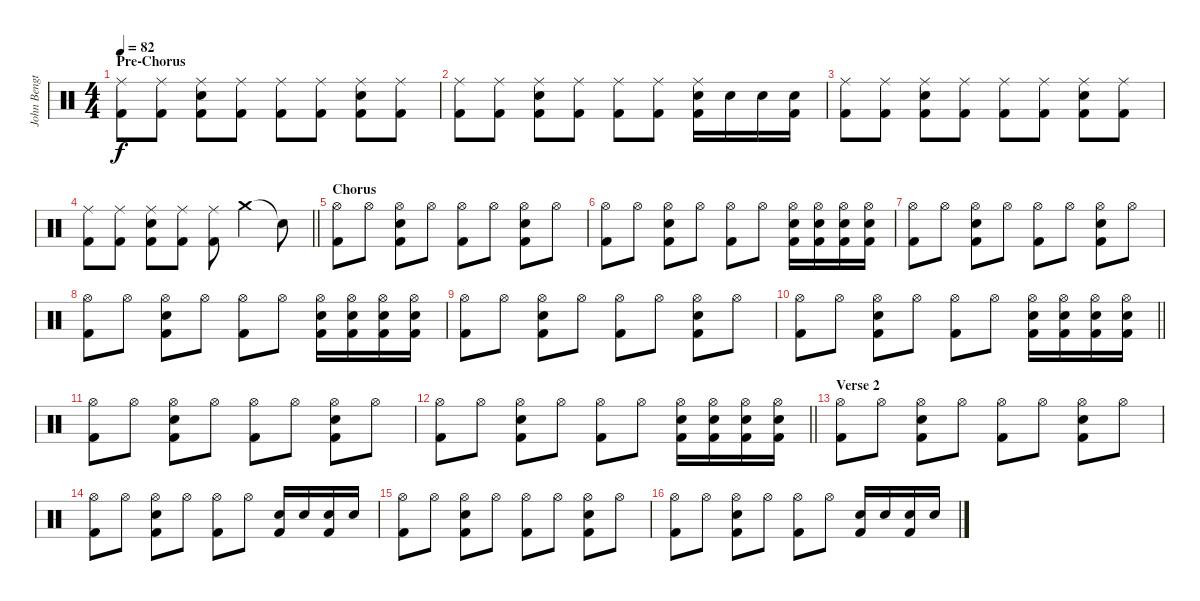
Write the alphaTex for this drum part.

\track ("John Bengtsson" "John Bengt") {instrument percussion}
\staff {score}
\articulation defaults
\ts (4 4)
\section ("" "Pre-Chorus")
\tempo 82
\clef neutral
\ks c
("Ride (middle)" "Kick (hit) 2").8{dy f} ("Ride (middle)" "Kick (hit) 2").8 ("Ride (middle)" "Electric Snare (hit)" "Kick (hit) 2").8 ("Ride (middle)" "Kick (hit) 2").8 ("Ride (middle)" "Kick (hit) 2").8 ("Ride (middle)" "Kick (hit) 2").8 ("Ride (middle)" "Electric Snare (hit)" "Kick (hit) 2").8 ("Ride (middle)" "Kick (hit) 2").8 |
("Ride (middle)" "Kick (hit) 2").8 ("Ride (middle)" "Kick (hit) 2").8 ("Ride (middle)" "Electric Snare (hit)" "Kick (hit) 2").8 ("Ride (middle)" "Kick (hit) 2").8 ("Ride (middle)" "Kick (hit) 2").8 ("Ride (middle)" "Kick (hit) 2").8 ("Ride (middle)" "Electric Snare (hit)" "Kick (hit) 2").16 "Electric Snare (hit)".16 "Electric Snare (hit)".16 ("Electric Snare (hit)" "Kick (hit) 2").16 |
("Ride (middle)" "Kick (hit) 2").8 ("Ride (middle)" "Kick (hit) 2").8 ("Ride (middle)" "Electric Snare (hit)" "Kick (hit) 2").8 ("Ride (middle)" "Kick (hit) 2").8 ("Ride (middle)" "Kick (hit) 2").8 ("Ride (middle)" "Kick (hit) 2").8 ("Ride (middle)" "Electric Snare (hit)" "Kick (hit) 2").8 ("Ride (middle)" "Kick (hit) 2").8 |
\barLineRight lightlight
("Ride (middle)" "Kick (hit) 2").8 ("Ride (middle)" "Kick (hit) 2").8 ("Ride (middle)" "Electric Snare (hit)" "Kick (hit) 2").8 ("Ride (middle)" "Kick (hit) 2").8 ("Ride (middle)" "Kick (hit) 2").8 "Crash medium (hit)".4 "Snare (hit)"{t}.8 |
\section ("" "Chorus")
("Hi-Hat (open)" "Kick (hit) 2").8 "Hi-Hat (open)".8 ("Hi-Hat (open)" "Electric Snare (hit)" "Kick (hit) 2").8 "Hi-Hat (open)".8 ("Hi-Hat (open)" "Kick (hit) 2").8 "Hi-Hat (open)".8 ("Hi-Hat (open)" "Electric Snare (hit)" "Kick (hit) 2").8 "Hi-Hat (open)".8 |
("Hi-Hat (open)" "Kick (hit) 2").8 "Hi-Hat (open)".8 ("Hi-Hat (open)" "Electric Snare (hit)" "Kick (hit) 2").8 "Hi-Hat (open)".8 ("Hi-Hat (open)" "Kick (hit) 2").8 "Hi-Hat (open)".8 ("Hi-Hat (open)" "Electric Snare (hit)" "Kick (hit) 2").16 ("Hi-Hat (open)" "Electric Snare (hit)" "Kick (hit) 2").16 ("Hi-Hat (open)" "Electric Snare (hit)" "Kick (hit) 2").16 ("Hi-Hat (open)" "Electric Snare (hit)" "Kick (hit) 2").16 |
("Hi-Hat (open)" "Kick (hit) 2").8 "Hi-Hat (open)".8 ("Hi-Hat (open)" "Electric Snare (hit)" "Kick (hit) 2").8 "Hi-Hat (open)".8 ("Hi-Hat (open)" "Kick (hit) 2").8 "Hi-Hat (open)".8 ("Hi-Hat (open)" "Electric Snare (hit)" "Kick (hit) 2").8 "Hi-Hat (open)".8 |
("Hi-Hat (open)" "Kick (hit) 2").8 "Hi-Hat (open)".8 ("Hi-Hat (open)" "Electric Snare (hit)" "Kick (hit) 2").8 "Hi-Hat (open)".8 ("Hi-Hat (open)" "Kick (hit) 2").8 "Hi-Hat (open)".8 ("Hi-Hat (open)" "Electric Snare (hit)" "Kick (hit) 2").16 ("Hi-Hat (open)" "Electric Snare (hit)" "Kick (hit) 2").16 ("Hi-Hat (open)" "Electric Snare (hit)" "Kick (hit) 2").16 ("Hi-Hat (open)" "Electric Snare (hit)" "Kick (hit) 2").16 |
("Hi-Hat (open)" "Kick (hit) 2").8 "Hi-Hat (open)".8 ("Hi-Hat (open)" "Electric Snare (hit)" "Kick (hit) 2").8 "Hi-Hat (open)".8 ("Hi-Hat (open)" "Kick (hit) 2").8 "Hi-Hat (open)".8 ("Hi-Hat (open)" "Electric Snare (hit)" "Kick (hit) 2").8 "Hi-Hat (open)".8 |
\barLineRight lightlight
("Hi-Hat (open)" "Kick (hit) 2").8 "Hi-Hat (open)".8 ("Hi-Hat (open)" "Electric Snare (hit)" "Kick (hit) 2").8 "Hi-Hat (open)".8 ("Hi-Hat (open)" "Kick (hit) 2").8 "Hi-Hat (open)".8 ("Hi-Hat (open)" "Electric Snare (hit)" "Kick (hit) 2").16 ("Hi-Hat (open)" "Electric Snare (hit)" "Kick (hit) 2").16 ("Hi-Hat (open)" "Electric Snare (hit)" "Kick (hit) 2").16 ("Hi-Hat (open)" "Electric Snare (hit)" "Kick (hit) 2").16 |
("Hi-Hat (open)" "Kick (hit) 2").8 "Hi-Hat (open)".8 ("Hi-Hat (open)" "Electric Snare (hit)" "Kick (hit) 2").8 "Hi-Hat (open)".8 ("Hi-Hat (open)" "Kick (hit) 2").8 "Hi-Hat (open)".8 ("Hi-Hat (open)" "Electric Snare (hit)" "Kick (hit) 2").8 "Hi-Hat (open)".8 |
\barLineRight lightlight
("Hi-Hat (open)" "Kick (hit) 2").8 "Hi-Hat (open)".8 ("Hi-Hat (open)" "Electric Snare (hit)" "Kick (hit) 2").8 "Hi-Hat (open)".8 ("Hi-Hat (open)" "Kick (hit) 2").8 "Hi-Hat (open)".8 ("Hi-Hat (open)" "Electric Snare (hit)" "Kick (hit) 2").16 ("Hi-Hat (open)" "Electric Snare (hit)" "Kick (hit) 2").16 ("Hi-Hat (open)" "Electric Snare (hit)" "Kick (hit) 2").16 ("Hi-Hat (open)" "Electric Snare (hit)" "Kick (hit) 2").16 |
\section ("" "Verse 2")
("Hi-Hat (open)" "Kick (hit) 2").8 "Hi-Hat (open)".8 ("Hi-Hat (open)" "Electric Snare (hit)" "Kick (hit) 2").8 "Hi-Hat (open)".8 ("Hi-Hat (open)" "Kick (hit) 2").8 "Hi-Hat (open)".8 ("Hi-Hat (open)" "Electric Snare (hit)" "Kick (hit) 2").8 "Hi-Hat (open)".8 |
("Hi-Hat (open)" "Kick (hit) 2").8 "Hi-Hat (open)".8 ("Hi-Hat (open)" "Electric Snare (hit)" "Kick (hit) 2").8 "Hi-Hat (open)".8 ("Hi-Hat (open)" "Kick (hit) 2").8 "Hi-Hat (open)".8 ("Electric Snare (hit)" "Kick (hit) 2").16 "Electric Snare (hit)".16 ("Electric Snare (hit)" "Kick (hit) 2").16 "Electric Snare (hit)".16 |
("Hi-Hat (open)" "Kick (hit) 2").8 "Hi-Hat (open)".8 ("Hi-Hat (open)" "Electric Snare (hit)" "Kick (hit) 2").8 "Hi-Hat (open)".8 ("Hi-Hat (open)" "Kick (hit) 2").8 "Hi-Hat (open)".8 ("Hi-Hat (open)" "Electric Snare (hit)" "Kick (hit) 2").8 "Hi-Hat (open)".8 |
("Hi-Hat (open)" "Kick (hit) 2").8 "Hi-Hat (open)".8 ("Hi-Hat (open)" "Electric Snare (hit)" "Kick (hit) 2").8 "Hi-Hat (open)".8 ("Hi-Hat (open)" "Kick (hit) 2").8 "Hi-Hat (open)".8 ("Electric Snare (hit)" "Kick (hit) 2").16 "Electric Snare (hit)".16 ("Electric Snare (hit)" "Kick (hit) 2").16 "Electric Snare (hit)".16
